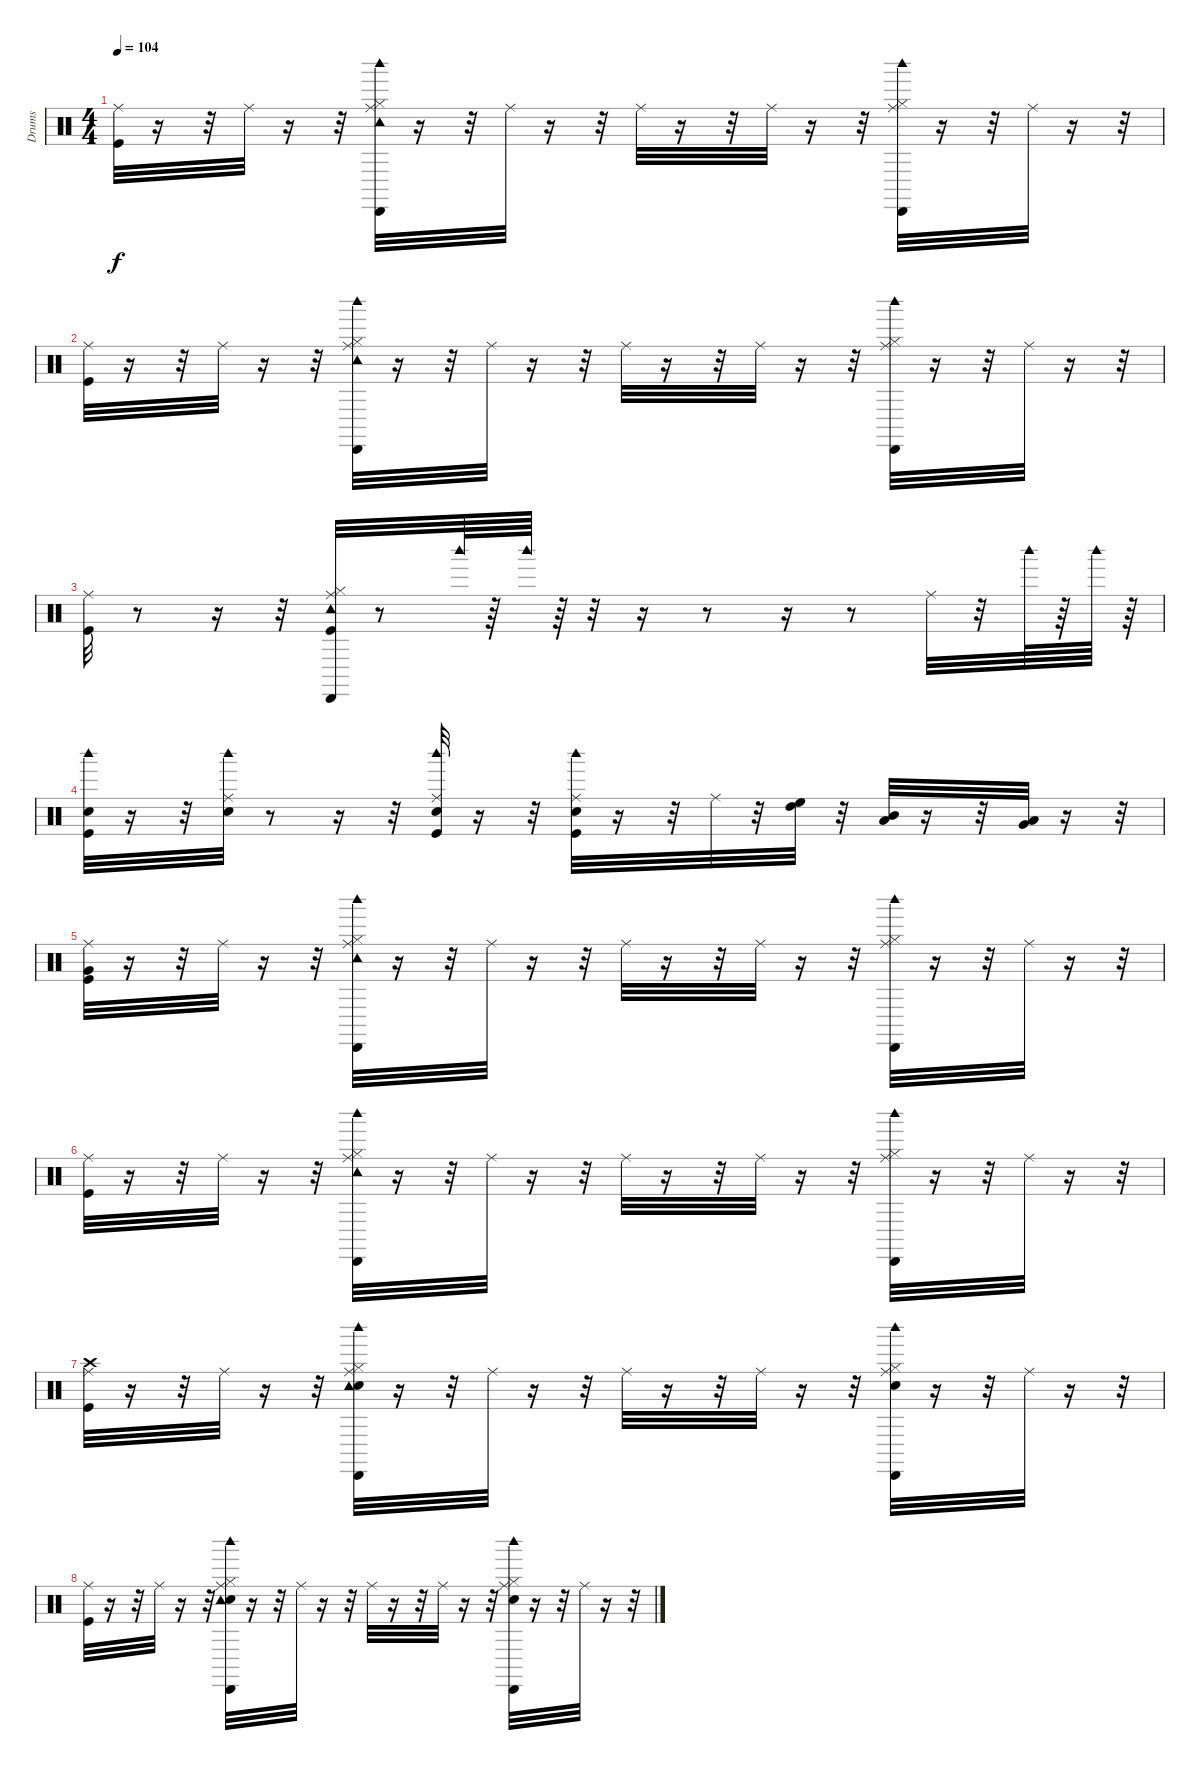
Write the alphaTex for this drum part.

\track ("Drums" "Drums") {instrument percussion}
\staff {score}
\articulation defaults
\ts (4 4)
\tempo 104
\clef neutral
\ks c
("Kick (hit)" "Ride (middle)").32{dy f} r.16 r.32 "Ride (middle)".32 r.16 r.32 ("Hi-Hat (closed)" "Ride (middle)" "Tambourine (hit)" "Cabasa (hit)" "Woodblock high (hit)").32 r.16 r.32 "Ride (middle)".32 r.16 r.32 "Ride (middle)".32 r.16 r.32 "Ride (middle)".32 r.16 r.32 ("Hi-Hat (closed)" "Ride (middle)" "Cabasa (hit)" "Woodblock high (hit)").32 r.16 r.32 "Ride (middle)".32 r.16 r.32 |
("Kick (hit)" "Ride (middle)").32 r.16 r.32 "Ride (middle)".32 r.16 r.32 ("Hi-Hat (closed)" "Ride (middle)" "Tambourine (hit)" "Cabasa (hit)" "Woodblock high (hit)").32 r.16 r.32 "Ride (middle)".32 r.16 r.32 "Ride (middle)".32 r.16 r.32 "Ride (middle)".32 r.16 r.32 ("Hi-Hat (closed)" "Ride (middle)" "Cabasa (hit)" "Woodblock high (hit)").32 r.16 r.32 "Ride (middle)".32 r.16 r.32 |
("Kick (hit)" "Ride (middle)").32 r.8 r.16 r.32 ("Kick (hit)" "Hi-Hat (closed)" "Ride (middle)" "Tambourine (hit)" "Cabasa (hit)").32 r.8 "Woodblock high (hit)".64 r.64 "Woodblock high (hit)".64 r.64 r.32 r.16 r.8 r.16 r.8 "Ride (middle)".32 r.32 "Woodblock high (hit)".64 r.64 "Woodblock high (hit)".64 r.64 |
("Kick (hit)" "Snare (hit) 2" "Woodblock high (hit)").32 r.16 r.32 ("Snare (hit) 2" "Ride (middle)" "Woodblock high (hit)").32 r.8 r.16 r.32 ("Kick (hit)" "Snare (hit) 2" "Ride (middle)" "Woodblock high (hit)").32 r.16 r.32 ("Kick (hit)" "Snare (hit) 2" "Ride (middle)" "Woodblock high (hit)").32 r.16 r.32 "Ride (middle)".32 r.32 ("High Tom (hit)" "High Floor Tom (hit)").32 r.32 ("Low Tom (hit)" "Mid Tom (hit)").32 r.16 r.32 ("Low Floor Tom (hit)" "Very Low Tom (hit)").32 r.16 r.32 |
("Kick (hit)" "Very Low Tom (hit)" "Ride (middle)").32 r.16 r.32 "Ride (middle)".32 r.16 r.32 ("Hi-Hat (closed)" "Ride (middle)" "Tambourine (hit)" "Cabasa (hit)" "Woodblock high (hit)").32 r.16 r.32 "Ride (middle)".32 r.16 r.32 "Ride (middle)".32 r.16 r.32 "Ride (middle)".32 r.16 r.32 ("Hi-Hat (closed)" "Ride (middle)" "Cabasa (hit)" "Woodblock high (hit)").32 r.16 r.32 "Ride (middle)".32 r.16 r.32 |
("Kick (hit)" "Ride (middle)").32 r.16 r.32 "Ride (middle)".32 r.16 r.32 ("Hi-Hat (closed)" "Ride (middle)" "Tambourine (hit)" "Cabasa (hit)" "Woodblock high (hit)").32 r.16 r.32 "Ride (middle)".32 r.16 r.32 "Ride (middle)".32 r.16 r.32 "Ride (middle)".32 r.16 r.32 ("Hi-Hat (closed)" "Ride (middle)" "Cabasa (hit)" "Woodblock high (hit)").32 r.16 r.32 "Ride (middle)".32 r.16 r.32 |
("Kick (hit)" "Crash high (hit)" "Ride (middle)").32 r.16 r.32 "Ride (middle)".32 r.16 r.32 ("Snare (hit) 2" "Hi-Hat (closed)" "Ride (middle)" "Tambourine (hit)" "Cabasa (hit)" "Woodblock high (hit)").32 r.16 r.32 "Ride (middle)".32 r.16 r.32 "Ride (middle)".32 r.16 r.32 "Ride (middle)".32 r.16 r.32 ("Snare (hit) 2" "Hi-Hat (closed)" "Ride (middle)" "Cabasa (hit)" "Woodblock high (hit)").32 r.16 r.32 "Ride (middle)".32 r.16 r.32 |
("Kick (hit)" "Ride (middle)").32 r.16 r.32 "Ride (middle)".32 r.16 r.32 ("Snare (hit) 2" "Hi-Hat (closed)" "Ride (middle)" "Tambourine (hit)" "Cabasa (hit)" "Woodblock high (hit)").32 r.16 r.32 "Ride (middle)".32 r.16 r.32 "Ride (middle)".32 r.16 r.32 "Ride (middle)".32 r.16 r.32 ("Snare (hit) 2" "Hi-Hat (closed)" "Ride (middle)" "Cabasa (hit)" "Woodblock high (hit)").32 r.16 r.32 "Ride (middle)".32 r.16 r.32
